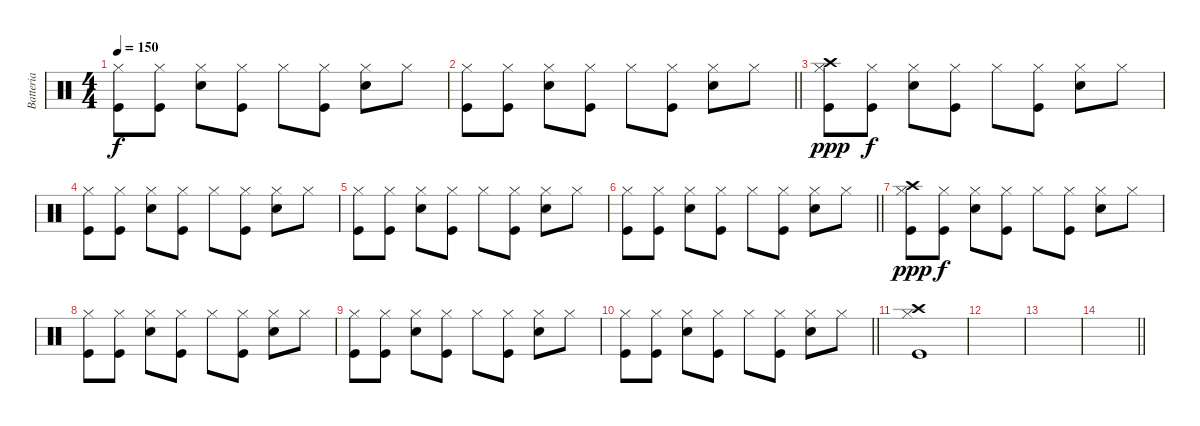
\track ("Batteria" "Batteria") {instrument percussion}
\staff {score}
\articulation defaults
\ts (4 4)
\tempo 150
\clef neutral
\ks c
("Hi-Hat (closed)" "Kick (hit)").8{dy f} ("Hi-Hat (closed)" "Kick (hit)").8 ("Hi-Hat (closed)" "Snare (hit) 2").8 ("Hi-Hat (closed)" "Kick (hit)").8 "Hi-Hat (closed)".8 ("Hi-Hat (closed)" "Kick (hit)").8 ("Hi-Hat (closed)" "Snare (hit) 2").8 "Hi-Hat (closed)".8 |
\barLineRight lightlight
("Hi-Hat (closed)" "Kick (hit)").8 ("Hi-Hat (closed)" "Kick (hit)").8 ("Hi-Hat (closed)" "Snare (hit) 2").8 ("Hi-Hat (closed)" "Kick (hit)").8 "Hi-Hat (closed)".8 ("Hi-Hat (closed)" "Kick (hit)").8 ("Hi-Hat (closed)" "Snare (hit) 2").8 "Hi-Hat (closed)".8 |
("Hi-Hat (closed)" "Crash high (hit)" "Kick (hit)").8{dy ppp} ("Hi-Hat (closed)" "Kick (hit)").8{dy f} ("Hi-Hat (closed)" "Snare (hit) 2").8 ("Hi-Hat (closed)" "Kick (hit)").8 "Hi-Hat (closed)".8 ("Hi-Hat (closed)" "Kick (hit)").8 ("Hi-Hat (closed)" "Snare (hit) 2").8 "Hi-Hat (closed)".8 |
("Hi-Hat (closed)" "Kick (hit)").8 ("Hi-Hat (closed)" "Kick (hit)").8 ("Hi-Hat (closed)" "Snare (hit) 2").8 ("Hi-Hat (closed)" "Kick (hit)").8 "Hi-Hat (closed)".8 ("Hi-Hat (closed)" "Kick (hit)").8 ("Hi-Hat (closed)" "Snare (hit) 2").8 "Hi-Hat (closed)".8 |
("Hi-Hat (closed)" "Kick (hit)").8 ("Hi-Hat (closed)" "Kick (hit)").8 ("Hi-Hat (closed)" "Snare (hit) 2").8 ("Hi-Hat (closed)" "Kick (hit)").8 "Hi-Hat (closed)".8 ("Hi-Hat (closed)" "Kick (hit)").8 ("Hi-Hat (closed)" "Snare (hit) 2").8 "Hi-Hat (closed)".8 |
\barLineRight lightlight
("Hi-Hat (closed)" "Kick (hit)").8 ("Hi-Hat (closed)" "Kick (hit)").8 ("Hi-Hat (closed)" "Snare (hit) 2").8 ("Hi-Hat (closed)" "Kick (hit)").8 "Hi-Hat (closed)".8 ("Hi-Hat (closed)" "Kick (hit)").8 ("Hi-Hat (closed)" "Snare (hit) 2").8 "Hi-Hat (closed)".8 |
("Hi-Hat (closed)" "Crash high (hit)" "Kick (hit)").8{dy ppp} ("Hi-Hat (closed)" "Kick (hit)").8{dy f} ("Hi-Hat (closed)" "Snare (hit) 2").8 ("Hi-Hat (closed)" "Kick (hit)").8 "Hi-Hat (closed)".8 ("Hi-Hat (closed)" "Kick (hit)").8 ("Hi-Hat (closed)" "Snare (hit) 2").8 "Hi-Hat (closed)".8 |
("Hi-Hat (closed)" "Kick (hit)").8 ("Hi-Hat (closed)" "Kick (hit)").8 ("Hi-Hat (closed)" "Snare (hit) 2").8 ("Hi-Hat (closed)" "Kick (hit)").8 "Hi-Hat (closed)".8 ("Hi-Hat (closed)" "Kick (hit)").8 ("Hi-Hat (closed)" "Snare (hit) 2").8 "Hi-Hat (closed)".8 |
("Hi-Hat (closed)" "Kick (hit)").8 ("Hi-Hat (closed)" "Kick (hit)").8 ("Hi-Hat (closed)" "Snare (hit) 2").8 ("Hi-Hat (closed)" "Kick (hit)").8 "Hi-Hat (closed)".8 ("Hi-Hat (closed)" "Kick (hit)").8 ("Hi-Hat (closed)" "Snare (hit) 2").8 "Hi-Hat (closed)".8 |
\barLineRight lightlight
("Hi-Hat (closed)" "Kick (hit)").8 ("Hi-Hat (closed)" "Kick (hit)").8 ("Hi-Hat (closed)" "Snare (hit) 2").8 ("Hi-Hat (closed)" "Kick (hit)").8 "Hi-Hat (closed)".8 ("Hi-Hat (closed)" "Kick (hit)").8 ("Hi-Hat (closed)" "Snare (hit) 2").8 "Hi-Hat (closed)".8 |
("Hi-Hat (closed)" "Crash high (hit)" "Kick (hit)").1 |
|
|
\barLineRight lightlight
